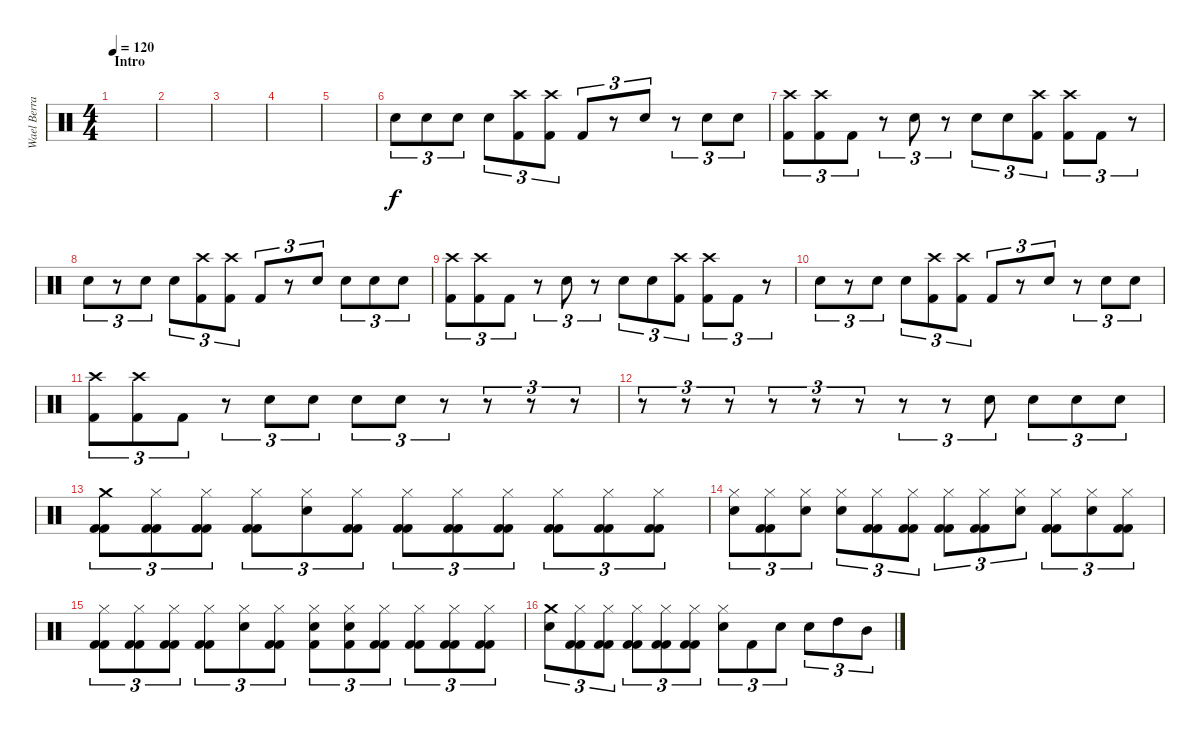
\track ("Wael Berrais" "Wael Berra") {instrument percussion}
\staff {score}
\articulation defaults
\ts (4 4)
\section ("" "Intro")
\tempo 120
\clef neutral
\ks c
|
|
|
|
|
"Electric Snare (hit)".8{tu (3 2)} "Electric Snare (hit)".8{tu (3 2)} "Electric Snare (hit)".8{tu (3 2)} "Electric Snare (hit)".8{tu (3 2)} ("Kick (hit) 2" "Crash high (hit)").8{tu (3 2)} ("Kick (hit) 2" "Crash high (hit)").8{tu (3 2)} "Kick (hit) 2".8{tu (3 2)} r.8{tu (3 2)} "Electric Snare (hit)".8{tu (3 2)} r.8{tu (3 2)} "Electric Snare (hit)".8{tu (3 2)} "Electric Snare (hit)".8{tu (3 2)} |
("Kick (hit) 2" "Crash high (hit)").8{tu (3 2)} ("Kick (hit) 2" "Crash high (hit)").8{tu (3 2)} "Kick (hit) 2".8{tu (3 2)} r.8{tu (3 2)} "Electric Snare (hit)".8{tu (3 2)} r.8{tu (3 2)} "Electric Snare (hit)".8{tu (3 2)} "Electric Snare (hit)".8{tu (3 2)} ("Kick (hit) 2" "Crash high (hit)").8{tu (3 2)} ("Kick (hit) 2" "Crash high (hit)").8{tu (3 2)} "Kick (hit) 2".8{tu (3 2)} r.8{tu (3 2)} |
"Electric Snare (hit)".8{tu (3 2)} r.8{tu (3 2)} "Electric Snare (hit)".8{tu (3 2)} "Electric Snare (hit)".8{tu (3 2)} ("Kick (hit) 2" "Crash high (hit)").8{tu (3 2)} ("Kick (hit) 2" "Crash high (hit)").8{tu (3 2)} "Kick (hit) 2".8{tu (3 2)} r.8{tu (3 2)} "Electric Snare (hit)".8{tu (3 2)} "Electric Snare (hit)".8{tu (3 2)} "Electric Snare (hit)".8{tu (3 2)} "Electric Snare (hit)".8{tu (3 2)} |
("Kick (hit) 2" "Crash high (hit)").8{tu (3 2)} ("Kick (hit) 2" "Crash high (hit)").8{tu (3 2)} "Kick (hit) 2".8{tu (3 2)} r.8{tu (3 2)} "Electric Snare (hit)".8{tu (3 2)} r.8{tu (3 2)} "Electric Snare (hit)".8{tu (3 2)} "Electric Snare (hit)".8{tu (3 2)} ("Kick (hit) 2" "Crash high (hit)").8{tu (3 2)} ("Kick (hit) 2" "Crash high (hit)").8{tu (3 2)} "Kick (hit) 2".8{tu (3 2)} r.8{tu (3 2)} |
"Electric Snare (hit)".8{tu (3 2)} r.8{tu (3 2)} "Electric Snare (hit)".8{tu (3 2)} "Electric Snare (hit)".8{tu (3 2)} ("Kick (hit) 2" "Crash high (hit)").8{tu (3 2)} ("Kick (hit) 2" "Crash high (hit)").8{tu (3 2)} "Kick (hit) 2".8{tu (3 2)} r.8{tu (3 2)} "Electric Snare (hit)".8{tu (3 2)} r.8{tu (3 2)} "Electric Snare (hit)".8{tu (3 2)} "Electric Snare (hit)".8{tu (3 2)} |
("Kick (hit) 2" "Crash high (hit)").8{tu (3 2)} ("Kick (hit) 2" "Crash high (hit)").8{tu (3 2)} "Kick (hit) 2".8{tu (3 2)} r.8{tu (3 2)} "Electric Snare (hit)".8{tu (3 2)} "Electric Snare (hit)".8{tu (3 2)} "Electric Snare (hit)".8{tu (3 2)} "Electric Snare (hit)".8{tu (3 2)} r.8{tu (3 2)} r.8{tu (3 2)} r.8{tu (3 2)} r.8{tu (3 2)} |
r.8{tu (3 2)} r.8{tu (3 2)} r.8{tu (3 2)} r.8{tu (3 2)} r.8{tu (3 2)} r.8{tu (3 2)} r.8{tu (3 2)} r.8{tu (3 2)} "Electric Snare (hit)".8{tu (3 2)} "Electric Snare (hit)".8{tu (3 2)} "Electric Snare (hit)".8{tu (3 2)} "Electric Snare (hit)".8{tu (3 2)} |
("Crash medium (hit)" "Kick (hit) 2" "Kick (hit) 2").8{tu (3 2)} ("Hi-Hat (closed)" "Kick (hit) 2" "Kick (hit) 2").8{tu (3 2)} ("Hi-Hat (closed)" "Kick (hit) 2" "Kick (hit) 2").8{tu (3 2)} ("Hi-Hat (closed)" "Kick (hit) 2" "Kick (hit) 2").8{tu (3 2)} ("Hi-Hat (closed)" "Electric Snare (hit)").8{tu (3 2)} ("Hi-Hat (closed)" "Kick (hit) 2" "Kick (hit) 2").8{tu (3 2)} ("Hi-Hat (closed)" "Kick (hit) 2" "Kick (hit) 2").8{tu (3 2)} ("Hi-Hat (closed)" "Kick (hit) 2" "Kick (hit) 2").8{tu (3 2)} ("Hi-Hat (closed)" "Kick (hit) 2" "Kick (hit) 2").8{tu (3 2)} ("Hi-Hat (closed)" "Kick (hit) 2" "Kick (hit) 2").8{tu (3 2)} ("Hi-Hat (closed)" "Kick (hit) 2" "Kick (hit) 2").8{tu (3 2)} ("Hi-Hat (closed)" "Kick (hit) 2" "Kick (hit) 2").8{tu (3 2)} |
("Hi-Hat (closed)" "Electric Snare (hit)").8{tu (3 2)} ("Hi-Hat (closed)" "Kick (hit) 2" "Kick (hit) 2").8{tu (3 2)} ("Hi-Hat (closed)" "Electric Snare (hit)").8{tu (3 2)} ("Hi-Hat (closed)" "Electric Snare (hit)").8{tu (3 2)} ("Hi-Hat (closed)" "Kick (hit) 2" "Kick (hit) 2").8{tu (3 2)} ("Hi-Hat (closed)" "Kick (hit) 2" "Kick (hit) 2").8{tu (3 2)} ("Hi-Hat (closed)" "Kick (hit) 2" "Kick (hit) 2").8{tu (3 2)} ("Hi-Hat (closed)" "Kick (hit) 2" "Kick (hit) 2").8{tu (3 2)} ("Hi-Hat (closed)" "Electric Snare (hit)").8{tu (3 2)} ("Hi-Hat (closed)" "Kick (hit) 2" "Kick (hit) 2").8{tu (3 2)} ("Hi-Hat (closed)" "Electric Snare (hit)").8{tu (3 2)} ("Hi-Hat (closed)" "Kick (hit) 2" "Kick (hit) 2").8{tu (3 2)} |
("Hi-Hat (closed)" "Kick (hit) 2" "Kick (hit) 2").8{tu (3 2)} ("Hi-Hat (closed)" "Kick (hit) 2" "Kick (hit) 2").8{tu (3 2)} ("Hi-Hat (closed)" "Kick (hit) 2" "Kick (hit) 2").8{tu (3 2)} ("Hi-Hat (closed)" "Kick (hit) 2" "Kick (hit) 2").8{tu (3 2)} ("Hi-Hat (closed)" "Electric Snare (hit)").8{tu (3 2)} ("Hi-Hat (closed)" "Kick (hit) 2" "Kick (hit) 2").8{tu (3 2)} ("Hi-Hat (closed)" "Electric Snare (hit)" "Kick (hit) 2").8{tu (3 2)} ("Hi-Hat (closed)" "Electric Snare (hit)" "Kick (hit) 2").8{tu (3 2)} ("Hi-Hat (closed)" "Kick (hit) 2" "Kick (hit) 2").8{tu (3 2)} ("Hi-Hat (closed)" "Kick (hit) 2" "Kick (hit) 2").8{tu (3 2)} ("Hi-Hat (closed)" "Kick (hit) 2" "Kick (hit) 2").8{tu (3 2)} ("Hi-Hat (closed)" "Kick (hit) 2" "Kick (hit) 2").8{tu (3 2)} |
("Electric Snare (hit)" "Crash medium (hit)").8{tu (3 2)} ("Hi-Hat (closed)" "Kick (hit) 2" "Kick (hit) 2").8{tu (3 2)} ("Hi-Hat (closed)" "Kick (hit) 2" "Kick (hit) 2").8{tu (3 2)} ("Hi-Hat (closed)" "Kick (hit) 2" "Kick (hit) 2").8{tu (3 2)} ("Hi-Hat (closed)" "Kick (hit) 2" "Kick (hit) 2").8{tu (3 2)} ("Hi-Hat (closed)" "Kick (hit) 2" "Kick (hit) 2").8{tu (3 2)} ("Hi-Hat (closed)" "Electric Snare (hit)").8{tu (3 2)} "Kick (hit) 2".8{tu (3 2)} "Electric Snare (hit)".8{tu (3 2)} "Electric Snare (hit)".8{tu (3 2)} "High Tom (hit)".8{tu (3 2)} "Mid Tom (hit)".8{tu (3 2)}
